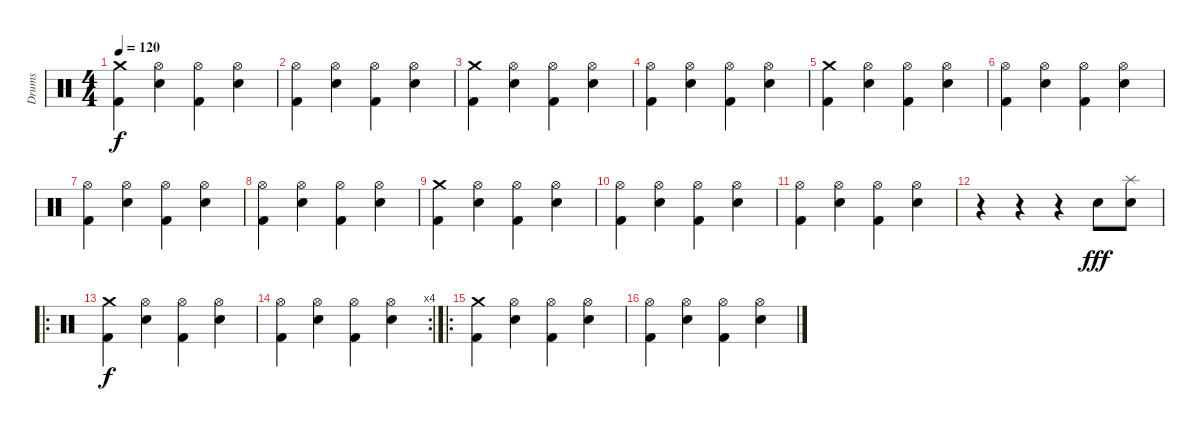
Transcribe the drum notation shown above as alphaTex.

\track ("Drums" "Drums") {instrument percussion}
\staff {score}
\articulation defaults
\ts (4 4)
\tempo 120
\clef neutral
\ks c
("Crash medium (hit)" "Kick (hit) 2").4{dy f} ("Hi-Hat (open)" "Snare (hit) 2").4 ("Hi-Hat (open)" "Kick (hit) 2").4 ("Hi-Hat (open)" "Snare (hit) 2").4 |
("Hi-Hat (open)" "Kick (hit) 2").4 ("Hi-Hat (open)" "Snare (hit) 2").4 ("Hi-Hat (open)" "Kick (hit) 2").4 ("Hi-Hat (open)" "Snare (hit) 2").4 |
("Crash medium (hit)" "Kick (hit) 2").4 ("Hi-Hat (open)" "Snare (hit) 2").4 ("Hi-Hat (open)" "Kick (hit) 2").4 ("Hi-Hat (open)" "Snare (hit) 2").4 |
("Hi-Hat (open)" "Kick (hit) 2").4 ("Hi-Hat (open)" "Snare (hit) 2").4 ("Hi-Hat (open)" "Kick (hit) 2").4 ("Hi-Hat (open)" "Snare (hit) 2").4 |
("Crash medium (hit)" "Kick (hit) 2").4 ("Hi-Hat (open)" "Snare (hit) 2").4 ("Hi-Hat (open)" "Kick (hit) 2").4 ("Hi-Hat (open)" "Snare (hit) 2").4 |
("Hi-Hat (open)" "Kick (hit) 2").4 ("Hi-Hat (open)" "Snare (hit) 2").4 ("Hi-Hat (open)" "Kick (hit) 2").4 ("Hi-Hat (open)" "Snare (hit) 2").4 |
("Hi-Hat (open)" "Kick (hit) 2").4 ("Hi-Hat (open)" "Snare (hit) 2").4 ("Hi-Hat (open)" "Kick (hit) 2").4 ("Hi-Hat (open)" "Snare (hit) 2").4 |
("Hi-Hat (open)" "Kick (hit) 2").4 ("Hi-Hat (open)" "Snare (hit) 2").4 ("Hi-Hat (open)" "Kick (hit) 2").4 ("Hi-Hat (open)" "Snare (hit) 2").4 |
("Crash medium (hit)" "Kick (hit) 2").4 ("Hi-Hat (open)" "Snare (hit) 2").4 ("Hi-Hat (open)" "Kick (hit) 2").4 ("Hi-Hat (open)" "Snare (hit) 2").4 |
("Hi-Hat (open)" "Kick (hit) 2").4 ("Hi-Hat (open)" "Snare (hit) 2").4 ("Hi-Hat (open)" "Kick (hit) 2").4 ("Hi-Hat (open)" "Snare (hit) 2").4 |
("Hi-Hat (open)" "Kick (hit) 2").4 ("Hi-Hat (open)" "Snare (hit) 2").4 ("Hi-Hat (open)" "Kick (hit) 2").4 ("Hi-Hat (open)" "Snare (hit) 2").4 |
r.4 r.4 r.4 "Snare (hit) 2".8{dy fff} ("Splash (hit)" "Snare (hit) 2").8 |
\ro
("Crash medium (hit)" "Kick (hit) 2").4{dy f} ("Hi-Hat (open)" "Snare (hit) 2").4 ("Hi-Hat (open)" "Kick (hit) 2").4 ("Hi-Hat (open)" "Snare (hit) 2").4 |
\rc 4
("Hi-Hat (open)" "Kick (hit) 2").4 ("Hi-Hat (open)" "Snare (hit) 2").4 ("Hi-Hat (open)" "Kick (hit) 2").4 ("Hi-Hat (open)" "Snare (hit) 2").4 |
\ro
("Crash medium (hit)" "Kick (hit) 2").4 ("Hi-Hat (open)" "Snare (hit) 2").4 ("Hi-Hat (open)" "Kick (hit) 2").4 ("Hi-Hat (open)" "Snare (hit) 2").4 |
("Hi-Hat (open)" "Kick (hit) 2").4 ("Hi-Hat (open)" "Snare (hit) 2").4 ("Hi-Hat (open)" "Kick (hit) 2").4 ("Hi-Hat (open)" "Snare (hit) 2").4
